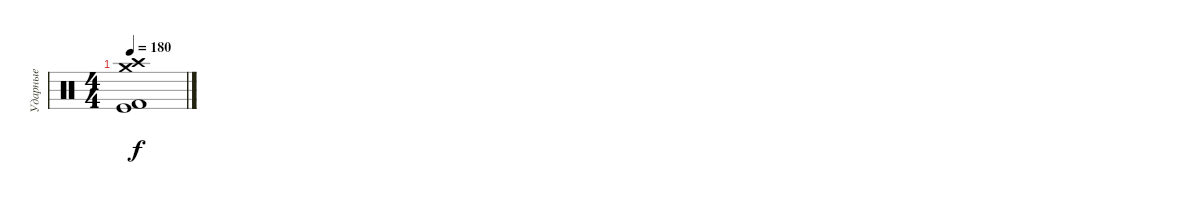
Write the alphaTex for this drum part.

\track ("Ударные" "Ударные") {instrument percussion}
\staff {score}
\articulation defaults
\ts (4 4)
\tempo 180
\clef neutral
\ks c
("Crash medium (hit)" "Crash high (hit)" "Kick (hit)" "Kick (hit) 2").1{dy f}
